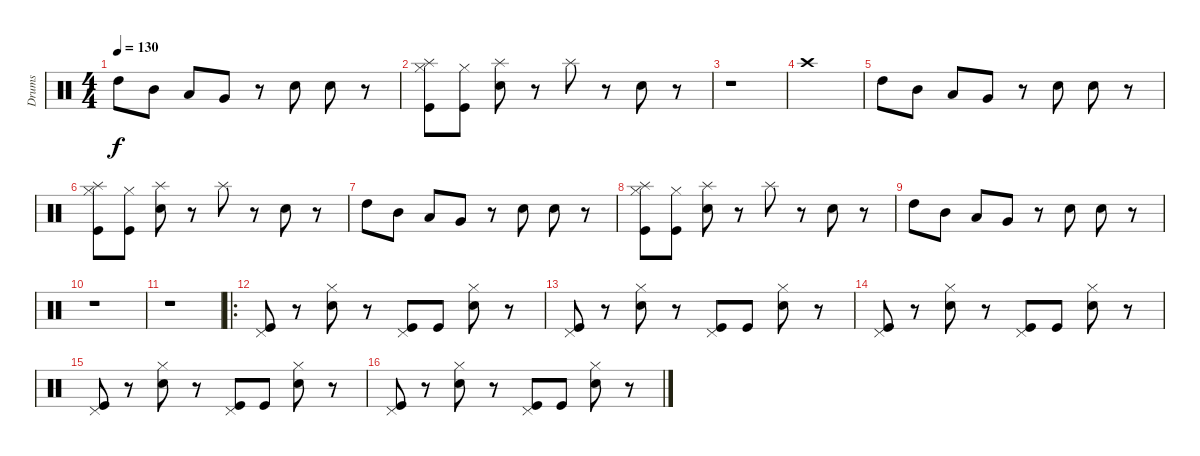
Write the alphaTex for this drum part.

\track ("Drums" "Drums") {instrument percussion}
\staff {score}
\articulation defaults
\ts (4 4)
\tempo 130
\clef neutral
\ks c "High Tom (hit)".8{dy f} "Mid Tom (hit)".8 "Low Tom (hit)".8 "Very Low Tom (hit)".8
r.8 "Snare (hit) 2".8 "Snare (hit) 2".8 r.8 |
("Splash (hit)" "Hi-Hat (closed)" "Kick (hit)").8 ("Hi-Hat (closed)" "Kick (hit)").8 ("Splash (hit)" "Snare (hit) 2").8 r.8 "Splash (hit)".8 r.8 "Snare (hit) 2".8 r.8 |
r.1 |
"Crash high (hit)".1 |
"High Tom (hit)".8 "Mid Tom (hit)".8 "Low Tom (hit)".8 "Very Low Tom (hit)".8 r.8 "Snare (hit) 2".8 "Snare (hit) 2".8 r.8 |
("Splash (hit)" "Hi-Hat (closed)" "Kick (hit)").8 ("Hi-Hat (closed)" "Kick (hit)").8 ("Splash (hit)" "Snare (hit) 2").8 r.8 "Splash (hit)".8 r.8 "Snare (hit) 2".8 r.8 |
"High Tom (hit)".8 "Mid Tom (hit)".8 "Low Tom (hit)".8 "Very Low Tom (hit)".8 r.8 "Snare (hit) 2".8 "Snare (hit) 2".8 r.8 |
("Splash (hit)" "Hi-Hat (closed)" "Kick (hit)").8 ("Hi-Hat (closed)" "Kick (hit)").8 ("Splash (hit)" "Snare (hit) 2").8 r.8 "Splash (hit)".8 r.8 "Snare (hit) 2".8 r.8 |
"High Tom (hit)".8 "Mid Tom (hit)".8 "Low Tom (hit)".8 "Very Low Tom (hit)".8 r.8 "Snare (hit) 2".8 "Snare (hit) 2".8 r.8 |
r.1 |
r.1 |
\ro
("Pedal Hi-Hat (hit)" "Kick (hit)").8 r.8 ("Hi-Hat (closed)" "Snare (hit) 2").8 r.8 ("Pedal Hi-Hat (hit)" "Kick (hit)").8 "Kick (hit)".8 ("Hi-Hat (closed)" "Snare (hit) 2").8 r.8 |
("Pedal Hi-Hat (hit)" "Kick (hit)").8 r.8 ("Hi-Hat (closed)" "Snare (hit) 2").8 r.8 ("Pedal Hi-Hat (hit)" "Kick (hit)").8 "Kick (hit)".8 ("Hi-Hat (closed)" "Snare (hit) 2").8 r.8 |
("Pedal Hi-Hat (hit)" "Kick (hit)").8 r.8 ("Hi-Hat (closed)" "Snare (hit) 2").8 r.8 ("Pedal Hi-Hat (hit)" "Kick (hit)").8 "Kick (hit)".8 ("Hi-Hat (closed)" "Snare (hit) 2").8 r.8 |
("Pedal Hi-Hat (hit)" "Kick (hit)").8 r.8 ("Hi-Hat (closed)" "Snare (hit) 2").8 r.8 ("Pedal Hi-Hat (hit)" "Kick (hit)").8 "Kick (hit)".8 ("Hi-Hat (closed)" "Snare (hit) 2").8 r.8 |
("Pedal Hi-Hat (hit)" "Kick (hit)").8 r.8 ("Hi-Hat (closed)" "Snare (hit) 2").8 r.8 ("Pedal Hi-Hat (hit)" "Kick (hit)").8 "Kick (hit)".8 ("Hi-Hat (closed)" "Snare (hit) 2").8 r.8
